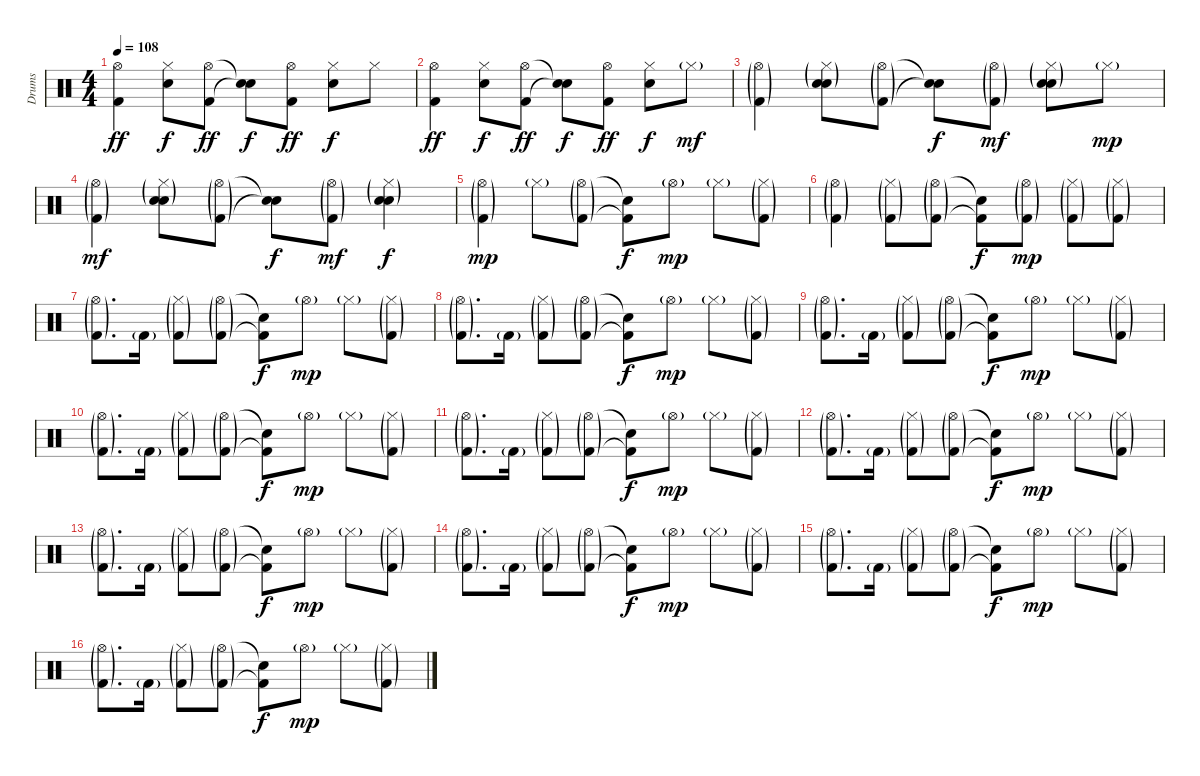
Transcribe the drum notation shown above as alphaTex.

\track ("Drums" "Drums") {instrument percussion}
\staff {score}
\articulation defaults
\ts (4 4)
\tempo 108
\clef neutral
\ks c
("Hi-Hat (open)" "Kick (hit) 2").4{dy ff} ("Hi-Hat (closed)" "Electric Snare (hit)").8{dy f} ("Hi-Hat (open)" "Kick (hit) 2").8{dy ff} ("Snare (hit)"{t} "Snare (hit)"{t}).8{dy f} ("Hi-Hat (open)" "Kick (hit) 2").8{dy ff} ("Hi-Hat (closed)" "Electric Snare (hit)").8{dy f} "Hi-Hat (closed)".8 |
("Hi-Hat (open)" "Kick (hit) 2").4{dy ff} ("Hi-Hat (closed)" "Electric Snare (hit)").8{dy f} ("Hi-Hat (open)" "Kick (hit) 2").8{dy ff} ("Snare (hit)"{t} "Snare (hit)"{t}).8{dy f} ("Hi-Hat (open)" "Kick (hit) 2").8{dy ff} ("Hi-Hat (closed)" "Electric Snare (hit)").8{dy f} "Hi-Hat (closed)"{g}.8{dy mf} |
("Hi-Hat (open)"{g} "Kick (hit) 2"{g}).4 ("Hi-Hat (closed)"{g} "Electric Snare (hit)"{g} "Snare (hit) 2"{g}).8 ("Hi-Hat (open)"{g} "Kick (hit) 2"{g}).8 ("Snare (hit)"{t} "Snare (hit)"{t}).8{dy f} ("Hi-Hat (open)"{g} "Kick (hit) 2"{g}).8{dy mf} ("Hi-Hat (closed)"{g} "Electric Snare (hit)"{g} "Snare (hit) 2"{g}).8 "Hi-Hat (closed)"{g}.8{dy mp} |
("Hi-Hat (open)"{g} "Kick (hit) 2"{g}).4{dy mf} ("Hi-Hat (closed)"{g} "Electric Snare (hit)"{g} "Snare (hit) 2"{g}).8 ("Hi-Hat (open)"{g} "Kick (hit) 2"{g}).8 ("Snare (hit)"{t} "Snare (hit)"{t}).8{dy f} ("Hi-Hat (open)"{g} "Kick (hit) 2"{g}).8{dy mf} ("Hi-Hat (closed)"{g} "Electric Snare (hit)"{g} "Snare (hit) 2"{g}).4{dy f} |
("Hi-Hat (open)"{g} "Kick (hit) 2"{g}).4{dy mp} "Hi-Hat (closed)"{g}.8 ("Hi-Hat (open)"{g} "Kick (hit) 2"{g}).8 ("Snare (hit)"{t} "Kick (hit) 2"{t}).8{dy f} "Hi-Hat (open)"{g}.8{dy mp} "Hi-Hat (closed)"{g}.8 ("Hi-Hat (closed)"{g} "Kick (hit) 2"{g}).8 |
("Hi-Hat (open)"{g} "Kick (hit) 2"{g}).4 ("Hi-Hat (closed)"{g} "Kick (hit) 2"{g}).8 ("Hi-Hat (open)"{g} "Kick (hit) 2"{g}).8 ("Snare (hit)"{t} "Kick (hit) 2"{t}).8{dy f} ("Hi-Hat (open)"{g} "Kick (hit) 2"{g}).8{dy mp} ("Hi-Hat (closed)"{g} "Kick (hit) 2"{g}).8 ("Hi-Hat (closed)"{g} "Kick (hit) 2"{g}).8 |
("Hi-Hat (open)"{g} "Kick (hit) 2"{g}).8{d} "Kick (hit) 2"{g}.16 ("Hi-Hat (closed)"{g} "Kick (hit) 2"{g}).8 ("Hi-Hat (open)"{g} "Kick (hit) 2"{g}).8 ("Snare (hit)"{t} "Kick (hit) 2"{t}).8{dy f} "Hi-Hat (open)"{g}.8{dy mp} "Hi-Hat (closed)"{g}.8 ("Hi-Hat (closed)"{g} "Kick (hit) 2"{g}).8 |
("Hi-Hat (open)"{g} "Kick (hit) 2"{g}).8{d} "Kick (hit) 2"{g}.16 ("Hi-Hat (closed)"{g} "Kick (hit) 2"{g}).8 ("Hi-Hat (open)"{g} "Kick (hit) 2"{g}).8 ("Snare (hit)"{t} "Kick (hit) 2"{t}).8{dy f} "Hi-Hat (open)"{g}.8{dy mp} "Hi-Hat (closed)"{g}.8 ("Hi-Hat (closed)"{g} "Kick (hit) 2"{g}).8 |
("Hi-Hat (open)"{g} "Kick (hit) 2"{g}).8{d} "Kick (hit) 2"{g}.16 ("Hi-Hat (closed)"{g} "Kick (hit) 2"{g}).8 ("Hi-Hat (open)"{g} "Kick (hit) 2"{g}).8 ("Snare (hit)"{t} "Kick (hit) 2"{t}).8{dy f} "Hi-Hat (open)"{g}.8{dy mp} "Hi-Hat (closed)"{g}.8 ("Hi-Hat (closed)"{g} "Kick (hit) 2"{g}).8 |
("Hi-Hat (open)"{g} "Kick (hit) 2"{g}).8{d} "Kick (hit) 2"{g}.16 ("Hi-Hat (closed)"{g} "Kick (hit) 2"{g}).8 ("Hi-Hat (open)"{g} "Kick (hit) 2"{g}).8 ("Snare (hit)"{t} "Kick (hit) 2"{t}).8{dy f} "Hi-Hat (open)"{g}.8{dy mp} "Hi-Hat (closed)"{g}.8 ("Hi-Hat (closed)"{g} "Kick (hit) 2"{g}).8 |
("Hi-Hat (open)"{g} "Kick (hit) 2"{g}).8{d} "Kick (hit) 2"{g}.16 ("Hi-Hat (closed)"{g} "Kick (hit) 2"{g}).8 ("Hi-Hat (open)"{g} "Kick (hit) 2"{g}).8 ("Snare (hit)"{t} "Kick (hit) 2"{t}).8{dy f} "Hi-Hat (open)"{g}.8{dy mp} "Hi-Hat (closed)"{g}.8 ("Hi-Hat (closed)"{g} "Kick (hit) 2"{g}).8 |
("Hi-Hat (open)"{g} "Kick (hit) 2"{g}).8{d} "Kick (hit) 2"{g}.16 ("Hi-Hat (closed)"{g} "Kick (hit) 2"{g}).8 ("Hi-Hat (open)"{g} "Kick (hit) 2"{g}).8 ("Snare (hit)"{t} "Kick (hit) 2"{t}).8{dy f} "Hi-Hat (open)"{g}.8{dy mp} "Hi-Hat (closed)"{g}.8 ("Hi-Hat (closed)"{g} "Kick (hit) 2"{g}).8 |
("Hi-Hat (open)"{g} "Kick (hit) 2"{g}).8{d} "Kick (hit) 2"{g}.16 ("Hi-Hat (closed)"{g} "Kick (hit) 2"{g}).8 ("Hi-Hat (open)"{g} "Kick (hit) 2"{g}).8 ("Snare (hit)"{t} "Kick (hit) 2"{t}).8{dy f} "Hi-Hat (open)"{g}.8{dy mp} "Hi-Hat (closed)"{g}.8 ("Hi-Hat (closed)"{g} "Kick (hit) 2"{g}).8 |
("Hi-Hat (open)"{g} "Kick (hit) 2"{g}).8{d} "Kick (hit) 2"{g}.16 ("Hi-Hat (closed)"{g} "Kick (hit) 2"{g}).8 ("Hi-Hat (open)"{g} "Kick (hit) 2"{g}).8 ("Snare (hit)"{t} "Kick (hit) 2"{t}).8{dy f} "Hi-Hat (open)"{g}.8{dy mp} "Hi-Hat (closed)"{g}.8 ("Hi-Hat (closed)"{g} "Kick (hit) 2"{g}).8 |
("Hi-Hat (open)"{g} "Kick (hit) 2"{g}).8{d} "Kick (hit) 2"{g}.16 ("Hi-Hat (closed)"{g} "Kick (hit) 2"{g}).8 ("Hi-Hat (open)"{g} "Kick (hit) 2"{g}).8 ("Snare (hit)"{t} "Kick (hit) 2"{t}).8{dy f} "Hi-Hat (open)"{g}.8{dy mp} "Hi-Hat (closed)"{g}.8 ("Hi-Hat (closed)"{g} "Kick (hit) 2"{g}).8 |
("Hi-Hat (open)"{g} "Kick (hit) 2"{g}).8{d} "Kick (hit) 2"{g}.16 ("Hi-Hat (closed)"{g} "Kick (hit) 2"{g}).8 ("Hi-Hat (open)"{g} "Kick (hit) 2"{g}).8 ("Snare (hit)"{t} "Kick (hit) 2"{t}).8{dy f} "Hi-Hat (open)"{g}.8{dy mp} "Hi-Hat (closed)"{g}.8 ("Hi-Hat (closed)"{g} "Kick (hit) 2"{g}).8
